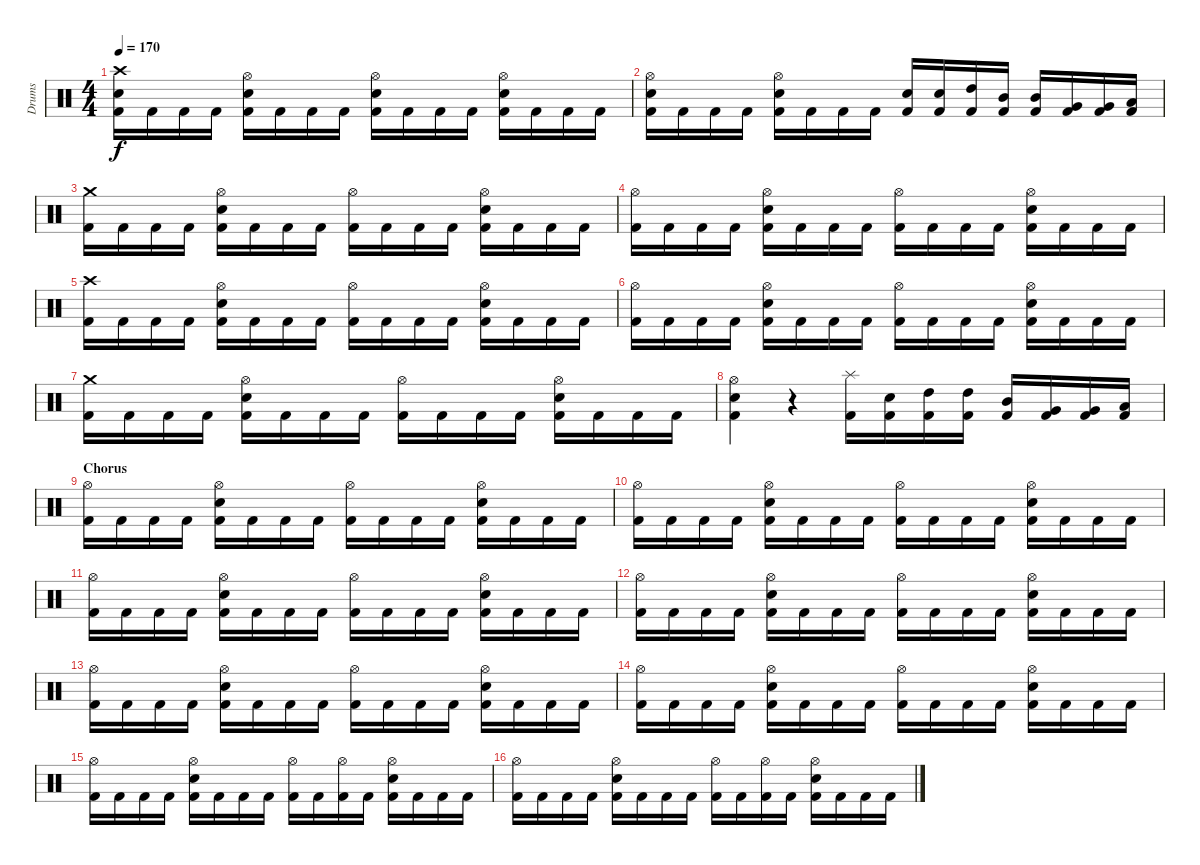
\track ("Drums" "Drums") {instrument percussion}
\staff {score}
\articulation defaults
\ts (4 4)
\tempo 170
\clef neutral
\ks c
("Kick (hit) 2" "Snare (hit) 2" "Crash high (hit)").16{dy f} "Kick (hit) 2".16 "Kick (hit) 2".16 "Kick (hit) 2".16 ("Kick (hit) 2" "Snare (hit) 2" "Hi-Hat (open)").16 "Kick (hit) 2".16 "Kick (hit) 2".16 "Kick (hit) 2".16 ("Kick (hit) 2" "Snare (hit) 2" "Hi-Hat (open)").16 "Kick (hit) 2".16 "Kick (hit) 2".16 "Kick (hit) 2".16 ("Kick (hit) 2" "Snare (hit) 2" "Hi-Hat (open)").16 "Kick (hit) 2".16 "Kick (hit) 2".16 "Kick (hit) 2".16 |
("Kick (hit) 2" "Snare (hit) 2" "Hi-Hat (open)").16 "Kick (hit) 2".16 "Kick (hit) 2".16 "Kick (hit) 2".16 ("Kick (hit) 2" "Snare (hit) 2" "Hi-Hat (open)").16 "Kick (hit) 2".16 "Kick (hit) 2".16 "Kick (hit) 2".16 ("Kick (hit) 2" "Snare (hit) 2").16 ("Kick (hit) 2" "Snare (hit) 2").16 ("Kick (hit) 2" "High Tom (hit)").16 ("Kick (hit) 2" "Mid Tom (hit)").16 ("Kick (hit) 2" "Mid Tom (hit)").16 ("Kick (hit) 2" "Very Low Tom (hit)").16 ("Kick (hit) 2" "Very Low Tom (hit)").16 ("Kick (hit) 2" "Low Floor Tom (hit)").16 |
("Kick (hit) 2" "Crash medium (hit)").16 "Kick (hit) 2".16 "Kick (hit) 2".16 "Kick (hit) 2".16 ("Kick (hit) 2" "Snare (hit) 2" "Hi-Hat (open)").16 "Kick (hit) 2".16 "Kick (hit) 2".16 "Kick (hit) 2".16 ("Kick (hit) 2" "Hi-Hat (open)").16 "Kick (hit) 2".16 "Kick (hit) 2".16 "Kick (hit) 2".16 ("Kick (hit) 2" "Snare (hit) 2" "Hi-Hat (open)").16 "Kick (hit) 2".16 "Kick (hit) 2".16 "Kick (hit) 2".16 |
("Kick (hit) 2" "Hi-Hat (open)").16 "Kick (hit) 2".16 "Kick (hit) 2".16 "Kick (hit) 2".16 ("Kick (hit) 2" "Snare (hit) 2" "Hi-Hat (open)").16 "Kick (hit) 2".16 "Kick (hit) 2".16 "Kick (hit) 2".16 ("Kick (hit) 2" "Hi-Hat (open)").16 "Kick (hit) 2".16 "Kick (hit) 2".16 "Kick (hit) 2".16 ("Kick (hit) 2" "Snare (hit) 2" "Hi-Hat (open)").16 "Kick (hit) 2".16 "Kick (hit) 2".16 "Kick (hit) 2".16 |
("Kick (hit) 2" "Crash high (hit)").16 "Kick (hit) 2".16 "Kick (hit) 2".16 "Kick (hit) 2".16 ("Kick (hit) 2" "Snare (hit) 2" "Hi-Hat (open)").16 "Kick (hit) 2".16 "Kick (hit) 2".16 "Kick (hit) 2".16 ("Kick (hit) 2" "Hi-Hat (open)").16 "Kick (hit) 2".16 "Kick (hit) 2".16 "Kick (hit) 2".16 ("Kick (hit) 2" "Snare (hit) 2" "Hi-Hat (open)").16 "Kick (hit) 2".16 "Kick (hit) 2".16 "Kick (hit) 2".16 |
("Kick (hit) 2" "Hi-Hat (open)").16 "Kick (hit) 2".16 "Kick (hit) 2".16 "Kick (hit) 2".16 ("Kick (hit) 2" "Snare (hit) 2" "Hi-Hat (open)").16 "Kick (hit) 2".16 "Kick (hit) 2".16 "Kick (hit) 2".16 ("Kick (hit) 2" "Hi-Hat (open)").16 "Kick (hit) 2".16 "Kick (hit) 2".16 "Kick (hit) 2".16 ("Kick (hit) 2" "Snare (hit) 2" "Hi-Hat (open)").16 "Kick (hit) 2".16 "Kick (hit) 2".16 "Kick (hit) 2".16 |
("Kick (hit) 2" "Crash medium (hit)").16 "Kick (hit) 2".16 "Kick (hit) 2".16 "Kick (hit) 2".16 ("Kick (hit) 2" "Snare (hit) 2" "Hi-Hat (open)").16 "Kick (hit) 2".16 "Kick (hit) 2".16 "Kick (hit) 2".16 ("Kick (hit) 2" "Hi-Hat (open)").16 "Kick (hit) 2".16 "Kick (hit) 2".16 "Kick (hit) 2".16 ("Kick (hit) 2" "Snare (hit) 2" "Hi-Hat (open)").16 "Kick (hit) 2".16 "Kick (hit) 2".16 "Kick (hit) 2".16 |
("Kick (hit) 2" "Snare (hit) 2" "Hi-Hat (open)").4 r.4 ("Kick (hit) 2" "Splash (hit)").16 ("Kick (hit) 2" "Snare (hit) 2").16 ("Kick (hit) 2" "High Tom (hit)").16 ("Kick (hit) 2" "High Tom (hit)").16 ("Kick (hit) 2" "Mid Tom (hit)").16 ("Kick (hit) 2" "Very Low Tom (hit)").16 ("Kick (hit) 2" "Very Low Tom (hit)").16 ("Kick (hit) 2" "Low Floor Tom (hit)").16 |
\section ("" "Chorus")
("Kick (hit) 2" "Hi-Hat (open)").16 "Kick (hit) 2".16 "Kick (hit) 2".16 "Kick (hit) 2".16 ("Kick (hit) 2" "Snare (hit) 2" "Hi-Hat (open)").16 "Kick (hit) 2".16 "Kick (hit) 2".16 "Kick (hit) 2".16 ("Kick (hit) 2" "Hi-Hat (open)").16 "Kick (hit) 2".16 "Kick (hit) 2".16 "Kick (hit) 2".16 ("Kick (hit) 2" "Snare (hit) 2" "Hi-Hat (open)").16 "Kick (hit) 2".16 "Kick (hit) 2".16 "Kick (hit) 2".16 |
("Kick (hit) 2" "Hi-Hat (open)").16 "Kick (hit) 2".16 "Kick (hit) 2".16 "Kick (hit) 2".16 ("Kick (hit) 2" "Snare (hit) 2" "Hi-Hat (open)").16 "Kick (hit) 2".16 "Kick (hit) 2".16 "Kick (hit) 2".16 ("Kick (hit) 2" "Hi-Hat (open)").16 "Kick (hit) 2".16 "Kick (hit) 2".16 "Kick (hit) 2".16 ("Kick (hit) 2" "Snare (hit) 2" "Hi-Hat (open)").16 "Kick (hit) 2".16 "Kick (hit) 2".16 "Kick (hit) 2".16 |
("Kick (hit) 2" "Hi-Hat (open)").16 "Kick (hit) 2".16 "Kick (hit) 2".16 "Kick (hit) 2".16 ("Kick (hit) 2" "Snare (hit) 2" "Hi-Hat (open)").16 "Kick (hit) 2".16 "Kick (hit) 2".16 "Kick (hit) 2".16 ("Kick (hit) 2" "Hi-Hat (open)").16 "Kick (hit) 2".16 "Kick (hit) 2".16 "Kick (hit) 2".16 ("Kick (hit) 2" "Snare (hit) 2" "Hi-Hat (open)").16 "Kick (hit) 2".16 "Kick (hit) 2".16 "Kick (hit) 2".16 |
("Kick (hit) 2" "Hi-Hat (open)").16 "Kick (hit) 2".16 "Kick (hit) 2".16 "Kick (hit) 2".16 ("Kick (hit) 2" "Snare (hit) 2" "Hi-Hat (open)").16 "Kick (hit) 2".16 "Kick (hit) 2".16 "Kick (hit) 2".16 ("Kick (hit) 2" "Hi-Hat (open)").16 "Kick (hit) 2".16 "Kick (hit) 2".16 "Kick (hit) 2".16 ("Kick (hit) 2" "Snare (hit) 2" "Hi-Hat (open)").16 "Kick (hit) 2".16 "Kick (hit) 2".16 "Kick (hit) 2".16 |
("Kick (hit) 2" "Hi-Hat (open)").16 "Kick (hit) 2".16 "Kick (hit) 2".16 "Kick (hit) 2".16 ("Kick (hit) 2" "Snare (hit) 2" "Hi-Hat (open)").16 "Kick (hit) 2".16 "Kick (hit) 2".16 "Kick (hit) 2".16 ("Kick (hit) 2" "Hi-Hat (open)").16 "Kick (hit) 2".16 "Kick (hit) 2".16 "Kick (hit) 2".16 ("Kick (hit) 2" "Snare (hit) 2" "Hi-Hat (open)").16 "Kick (hit) 2".16 "Kick (hit) 2".16 "Kick (hit) 2".16 |
("Kick (hit) 2" "Hi-Hat (open)").16 "Kick (hit) 2".16 "Kick (hit) 2".16 "Kick (hit) 2".16 ("Kick (hit) 2" "Snare (hit) 2" "Hi-Hat (open)").16 "Kick (hit) 2".16 "Kick (hit) 2".16 "Kick (hit) 2".16 ("Kick (hit) 2" "Hi-Hat (open)").16 "Kick (hit) 2".16 "Kick (hit) 2".16 "Kick (hit) 2".16 ("Kick (hit) 2" "Snare (hit) 2" "Hi-Hat (open)").16 "Kick (hit) 2".16 "Kick (hit) 2".16 "Kick (hit) 2".16 |
("Kick (hit) 2" "Hi-Hat (open)").16 "Kick (hit) 2".16 "Kick (hit) 2".16 "Kick (hit) 2".16 ("Kick (hit) 2" "Snare (hit) 2" "Hi-Hat (open)").16 "Kick (hit) 2".16 "Kick (hit) 2".16 "Kick (hit) 2".16 ("Kick (hit) 2" "Hi-Hat (open)").16 "Kick (hit) 2".16 ("Kick (hit) 2" "Hi-Hat (open)").16 "Kick (hit) 2".16 ("Kick (hit) 2" "Snare (hit) 2" "Hi-Hat (open)").16 "Kick (hit) 2".16 "Kick (hit) 2".16 "Kick (hit) 2".16 |
("Kick (hit) 2" "Hi-Hat (open)").16 "Kick (hit) 2".16 "Kick (hit) 2".16 "Kick (hit) 2".16 ("Kick (hit) 2" "Snare (hit) 2" "Hi-Hat (open)").16 "Kick (hit) 2".16 "Kick (hit) 2".16 "Kick (hit) 2".16 ("Kick (hit) 2" "Hi-Hat (open)").16 "Kick (hit) 2".16 ("Kick (hit) 2" "Hi-Hat (open)").16 "Kick (hit) 2".16 ("Kick (hit) 2" "Snare (hit) 2" "Hi-Hat (open)").16 "Kick (hit) 2".16 "Kick (hit) 2".16 "Kick (hit) 2".16
